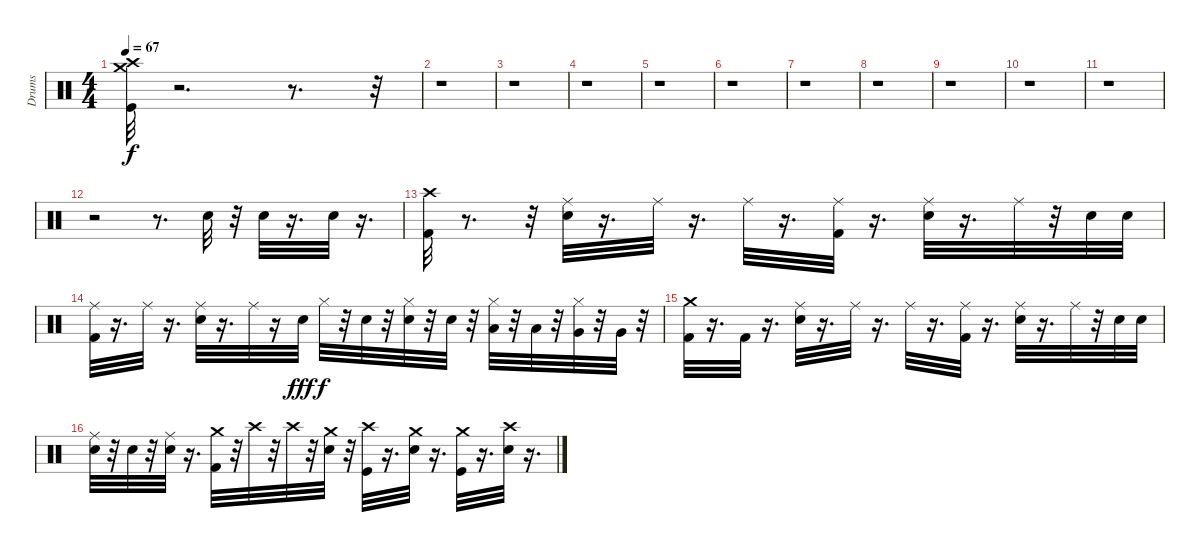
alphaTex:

\track ("Drums" "Drums") {instrument percussion}
\staff {score}
\articulation defaults
\ts (4 4)
\tempo 67
\clef neutral
\ks c
("Kick (hit)" "Crash high (hit)" "Crash medium (hit)").32{dy f} r.2{d} r.8{d} r.32 |
r.1 |
r.1 |
r.1 |
r.1 |
r.1 |
r.1 |
r.1 |
r.1 |
r.1 |
r.1 |
r.2 r.8{d} "Snare (hit) 2".32 r.32 "Snare (hit) 2".32 r.16{d} "Snare (hit) 2".32 r.16{d} |
("Kick (hit) 2" "Crash high (hit)").32 r.8{d} r.32 ("Snare (hit) 2" "Ride (middle)").32 r.16{d} "Ride (middle)".32 r.16{d} "Ride (middle)".32 r.16{d} ("Kick (hit) 2" "Ride (middle)").32 r.16{d} ("Snare (hit) 2" "Ride (middle)").32 r.16{d} "Ride (middle)".32 r.32 "Snare (hit) 2".32 "Snare (hit) 2".32 |
("Kick (hit) 2" "Ride (middle)").32 r.16{d} "Ride (middle)".32 r.16{d} ("Snare (hit) 2" "Ride (middle)").32 r.16{d} "Ride (middle)".32 r.16 "Snare (hit) 2".32{dy fff} "Hi-Hat (closed)".32{dy f} r.32 "Snare (hit) 2".32 r.32 ("Snare (hit) 2" "Hi-Hat (closed)").32 r.32 "Snare (hit) 2".32 r.32 ("Low Tom (hit)" "Hi-Hat (closed)").32 r.32 "Low Tom (hit)".32 r.32 ("Very Low Tom (hit)" "Hi-Hat (closed)").32 r.32 "Very Low Tom (hit)".32 r.32 |
("Crash medium (hit)" "Kick (hit) 2").32 r.16{d} "Kick (hit) 2".32 r.16{d} ("Ride (middle)" "Snare (hit) 2").32 r.16{d} "Ride (middle)".32 r.16{d} "Ride (middle)".32 r.16{d} ("Ride (middle)" "Kick (hit) 2").32 r.16{d} ("Snare (hit) 2" "Ride (middle)").32 r.16{d} "Ride (middle)".32 r.32 "Snare (hit) 2".32 "Snare (hit) 2".32 |
("Snare (hit) 2" "Ride (middle)").32 r.32 "Snare (hit) 2".32 r.32 ("Snare (hit) 2" "Ride (middle)").32 r.16{d} ("Crash medium (hit)" "Kick (hit) 2").32 r.32 "Crash high (hit)".32 r.32 "Crash high (hit)".32 r.32 ("Snare (hit) 2" "Crash medium (hit)").32 r.32 ("Crash high (hit)" "Kick (hit)").32 r.16{d} ("Crash medium (hit)" "Snare (hit) 2").32 r.16{d} ("Crash medium (hit)" "Kick (hit)").32 r.16{d} ("Crash high (hit)" "Snare (hit) 2").32 r.16{d}
